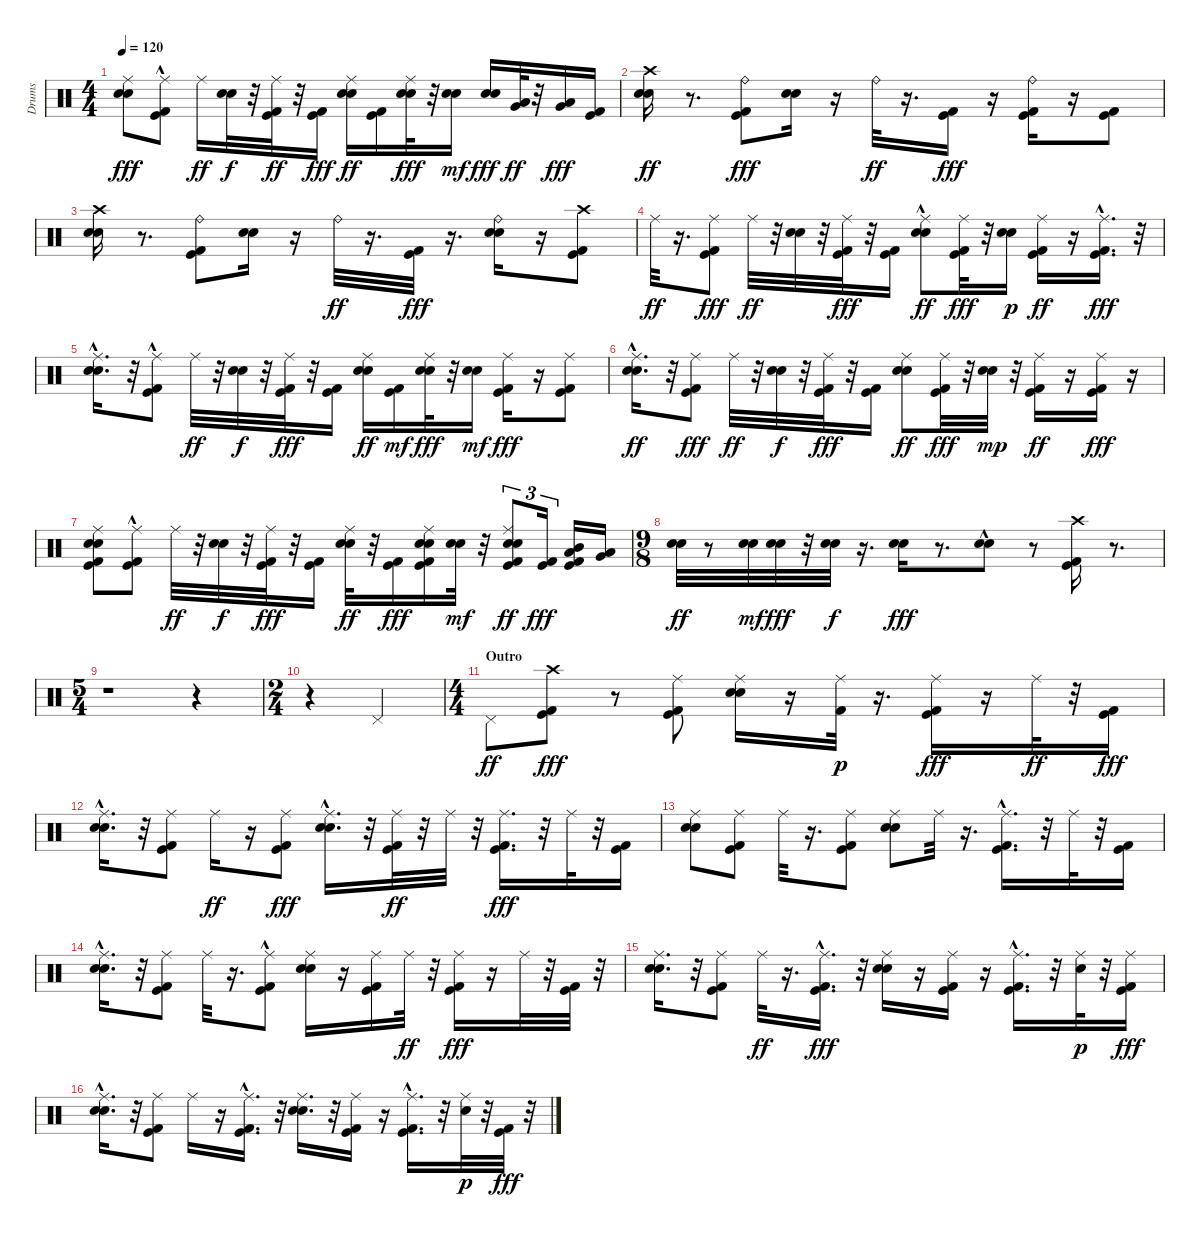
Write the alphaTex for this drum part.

\track ("Drums" "Drums") {instrument percussion}
\staff {score}
\articulation defaults
\ts (4 4)
\tempo 120
\clef neutral
\ks c
("Snare (hit) 2" "Electric Snare (hit)" "Ride (middle)").8{dy fff} ("Kick (hit) 2"{hac} "Kick (hit)"{hac} "Ride (middle)").8 "Ride (middle)".16{dy ff} ("Snare (hit) 2" "Electric Snare (hit)").32{dy f} r.32 ("Kick (hit)" "Kick (hit) 2" "Ride (middle)").32{dy ff} r.32 ("Kick (hit) 2" "Kick (hit)").16{dy fff} ("Electric Snare (hit)" "Snare (hit) 2" "Ride (middle)").16{dy ff} ("Kick (hit) 2" "Kick (hit)").16 ("Snare (hit) 2" "Electric Snare (hit)" "Ride (middle)").32{dy fff} r.32 ("Snare (hit) 2" "Electric Snare (hit)").16{dy mf} ("Snare (hit) 2" "Electric Snare (hit)").16{dy fff} ("Very Low Tom (hit)" "Low Tom (hit)").32{dy ff} r.32 ("Very Low Tom (hit)" "Low Floor Tom (hit)").16{dy fff} ("Kick (hit)" "Kick (hit) 2").16 |
("Electric Snare (hit)" "Crash high (hit)" "Snare (hit) 2").16{dy ff} r.8{d} ("Ride (bell)" "Kick (hit) 2" "Kick (hit)").8{dy fff} ("Electric Snare (hit)" "Snare (hit) 2").16 r.16 "Ride (bell)".32{dy ff} r.16{d} ("Kick (hit) 2" "Kick (hit)").16{dy fff} r.16 ("Ride (bell)" "Kick (hit) 2" "Kick (hit)").16 r.16 ("Kick (hit) 2" "Kick (hit)").8 |
("Crash high (hit)" "Electric Snare (hit)" "Snare (hit) 2").16 r.8{d} ("Ride (bell)" "Kick (hit) 2" "Kick (hit)").8 ("Electric Snare (hit)" "Snare (hit) 2").16 r.16 "Ride (bell)".32{dy ff} r.16{d} ("Kick (hit)" "Kick (hit) 2").32{dy fff} r.16{d} ("Ride (bell)" "Snare (hit) 2" "Electric Snare (hit)").16 r.16 ("Kick (hit) 2" "Kick (hit)" "Crash high (hit)").8 |
"Ride (middle)".32{dy ff} r.16{d} ("Kick (hit) 2" "Kick (hit)" "Ride (middle)").8{dy fff} "Ride (middle)".32{dy ff} r.32 ("Snare (hit) 2" "Electric Snare (hit)").32 r.32 ("Kick (hit) 2" "Kick (hit)" "Ride (middle)").32{dy fff} r.32 ("Kick (hit) 2" "Kick (hit)").16 ("Electric Snare (hit)" "Snare (hit) 2"{hac} "Ride (middle)").8{dy ff} ("Kick (hit) 2" "Kick (hit)" "Ride (middle)").32{dy fff} r.32 ("Snare (hit) 2" "Electric Snare (hit)").16{dy p} ("Kick (hit) 2" "Kick (hit)" "Ride (middle)").16{dy ff} r.16 ("Kick (hit) 2"{hac} "Kick (hit)"{hac} "Ride (middle)").16{d dy fff} r.32 |
("Snare (hit) 2"{hac} "Electric Snare (hit)"{hac} "Ride (middle)").16{d} r.32 ("Kick (hit)"{hac} "Kick (hit) 2"{hac} "Ride (middle)").8 "Ride (middle)".32{dy ff} r.32 ("Snare (hit) 2" "Electric Snare (hit)").32{dy f} r.32 ("Kick (hit)" "Kick (hit) 2" "Ride (middle)").32{dy fff} r.32 ("Kick (hit) 2" "Kick (hit)").16 ("Electric Snare (hit)" "Snare (hit) 2" "Ride (middle)").16{dy ff} ("Kick (hit) 2" "Kick (hit)").16{dy mf} ("Snare (hit) 2" "Electric Snare (hit)" "Ride (middle)").32{dy fff} r.32 ("Snare (hit) 2" "Electric Snare (hit)").16{dy mf} ("Ride (middle)" "Kick (hit) 2" "Kick (hit)").16{dy fff} r.16 ("Kick (hit) 2" "Kick (hit)" "Ride (middle)").8 |
("Snare (hit) 2"{hac} "Electric Snare (hit)"{hac} "Ride (middle)").16{d dy ff} r.32 ("Kick (hit)" "Kick (hit) 2" "Ride (middle)").8{dy fff} "Ride (middle)".32{dy ff} r.32 ("Snare (hit) 2" "Electric Snare (hit)").32{dy f} r.32 ("Kick (hit) 2" "Kick (hit)" "Ride (middle)").32{dy fff} r.32 ("Kick (hit) 2" "Kick (hit)").16 ("Snare (hit) 2" "Electric Snare (hit)" "Ride (middle)").8{dy ff} ("Kick (hit) 2" "Kick (hit)" "Ride (middle)").32{dy fff} r.32 ("Snare (hit) 2" "Electric Snare (hit)").32{dy mp} r.32 ("Kick (hit) 2" "Kick (hit)" "Ride (middle)").16{dy ff} r.16 ("Kick (hit)" "Kick (hit) 2" "Ride (middle)").16{dy fff} r.16 |
("Kick (hit) 2" "Kick (hit)" "Snare (hit) 2" "Electric Snare (hit)" "Ride (middle)").8 ("Kick (hit) 2"{hac} "Kick (hit)"{hac} "Ride (middle)").8 "Ride (middle)".32{dy ff} r.32 ("Snare (hit) 2" "Electric Snare (hit)").32{dy f} r.32 ("Kick (hit) 2" "Kick (hit)" "Ride (middle)").32{dy fff} r.32 ("Kick (hit)" "Kick (hit) 2").16 ("Snare (hit) 2" "Electric Snare (hit)" "Ride (middle)").32{dy ff} r.32 ("Kick (hit) 2" "Kick (hit)").16{dy fff} ("Kick (hit)" "Kick (hit) 2" "Electric Snare (hit)" "Snare (hit) 2" "Ride (middle)").16 ("Snare (hit) 2" "Electric Snare (hit)").32{dy mf} r.32 ("Electric Snare (hit)" "Snare (hit) 2" "Kick (hit)" "Kick (hit) 2" "Ride (middle)").8{tu (3 2) dy ff} ("Kick (hit)" "Kick (hit) 2").16{tu (3 2) dy fff} ("Mid Tom (hit)" "Low Tom (hit)" "Kick (hit) 2" "Kick (hit)").16 ("Low Floor Tom (hit)" "Very Low Tom (hit)").16 |
\ts (9 8)
("Electric Snare (hit)" "Snare (hit) 2").32{dy ff} r.8 ("Electric Snare (hit)" "Snare (hit) 2").32{dy mf} ("Snare (hit) 2" "Electric Snare (hit)").32{dy fff} r.32 ("Snare (hit) 2" "Electric Snare (hit)").32{dy f} r.16{d} ("Snare (hit) 2" "Electric Snare (hit)").16{dy fff} r.8{d} ("Electric Snare (hit)" "Snare (hit) 2"{hac}).8 r.8 ("Crash high (hit)" "Kick (hit) 2" "Kick (hit)").16 r.8{d} |
\ts (5 4)
r.1 r.4 |
\ts (2 4)
r.4 "Pedal Hi-Hat (hit)".4 |
\ts (4 4)
\section ("" "Outro")
"Pedal Hi-Hat (hit)".8{dy ff} ("Crash high (hit)" "Kick (hit) 2" "Kick (hit)").8{dy fff} r.8 ("Ride (middle)" "Kick (hit)" "Kick (hit) 2").8 ("Ride (middle)" "Snare (hit) 2" "Electric Snare (hit)").16 r.16 ("Ride (middle)" "Kick (hit) 2").32{dy p} r.16{d} ("Ride (middle)" "Kick (hit) 2" "Kick (hit)").16{dy fff} r.16 "Ride (middle)".32{dy ff} r.32 ("Kick (hit) 2" "Kick (hit)").16{dy fff} |
("Ride (middle)" "Snare (hit) 2"{hac} "Electric Snare (hit)"{hac}).16{d} r.32 ("Ride (middle)" "Kick (hit) 2" "Kick (hit)").8 "Ride (middle)".16{dy ff} r.16 ("Ride (middle)" "Kick (hit)" "Kick (hit) 2").8{dy fff} ("Ride (middle)" "Snare (hit) 2"{hac} "Electric Snare (hit)").16{d} r.32 ("Ride (middle)" "Kick (hit) 2" "Kick (hit)").32{dy ff} r.32 "Ride (middle)".32 r.32 ("Ride (middle)" "Kick (hit) 2" "Kick (hit)").16{d dy fff} r.32 "Ride (middle)".32 r.32 ("Kick (hit) 2" "Kick (hit)").16 |
("Ride (middle)" "Snare (hit) 2" "Electric Snare (hit)").8 ("Ride (middle)" "Kick (hit) 2" "Kick (hit)").8 "Ride (middle)".32 r.16{d} ("Ride (middle)" "Kick (hit)" "Kick (hit) 2").8 ("Ride (middle)" "Snare (hit) 2" "Electric Snare (hit)").8 "Ride (middle)".32 r.16{d} ("Ride (middle)" "Kick (hit)"{hac} "Kick (hit) 2"{hac}).16{d} r.32 "Ride (middle)".32 r.32 ("Kick (hit) 2" "Kick (hit)").16 |
("Ride (middle)" "Snare (hit) 2" "Electric Snare (hit)"{hac}).16{d} r.32 ("Ride (middle)" "Kick (hit) 2" "Kick (hit)").8 "Ride (middle)".32 r.16{d} ("Ride (middle)" "Kick (hit)" "Kick (hit) 2"{hac}).8 ("Ride (middle)" "Snare (hit) 2" "Electric Snare (hit)").16 r.16 ("Ride (middle)" "Kick (hit)" "Kick (hit) 2").16 "Ride (middle)".32{dy ff} r.32 ("Ride (middle)" "Kick (hit) 2" "Kick (hit)").16{dy fff} r.16 "Ride (middle)".32 r.32 ("Kick (hit) 2" "Kick (hit)").32 r.32 |
("Ride (middle)" "Snare (hit) 2" "Electric Snare (hit)").16{d} r.32 ("Ride (middle)" "Kick (hit) 2" "Kick (hit)").8 "Ride (middle)".32{dy ff} r.16{d} ("Ride (middle)" "Kick (hit) 2"{hac} "Kick (hit)"{hac}).16{d dy fff} r.32 ("Ride (middle)" "Snare (hit) 2" "Electric Snare (hit)").16 r.16 ("Ride (middle)" "Kick (hit) 2" "Kick (hit)").16 r.16 ("Ride (middle)" "Kick (hit) 2"{hac} "Kick (hit)"{hac}).16{d} r.32 ("Ride (middle)" "Snare (hit) 2").32{dy p} r.32 ("Ride (middle)" "Kick (hit) 2" "Kick (hit)").16{dy fff} |
("Ride (middle)" "Snare (hit) 2"{hac} "Electric Snare (hit)"{hac}).16{d} r.32 ("Ride (middle)" "Kick (hit) 2" "Kick (hit)").8 "Ride (middle)".16 r.16 ("Ride (middle)" "Kick (hit) 2"{hac} "Kick (hit)"{hac}).16{d} r.32 ("Ride (middle)" "Snare (hit) 2" "Electric Snare (hit)").16{d} r.32 ("Ride (middle)" "Kick (hit) 2" "Kick (hit)").16 r.16 ("Ride (middle)" "Kick (hit) 2"{hac} "Kick (hit)"{hac}).16{d} r.32 ("Ride (middle)" "Snare (hit) 2").32{dy p} r.32 ("Kick (hit) 2" "Kick (hit)").32{dy fff} r.32
